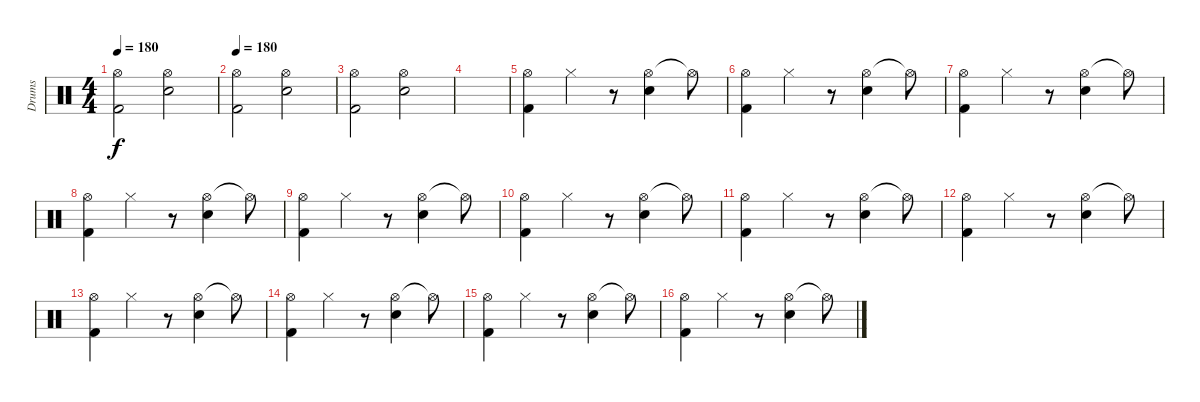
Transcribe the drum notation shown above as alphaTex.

\track ("Drums" "Drums") {instrument percussion}
\staff {score}
\articulation defaults
\ts (4 4)
\tempo 180
\clef neutral
\ks c
("Hi-Hat (open)" "Kick (hit) 2").2{dy f} ("Hi-Hat (open)" "Electric Snare (hit)").2 |
\tempo 180
("Hi-Hat (open)" "Kick (hit) 2").2 ("Hi-Hat (open)" "Electric Snare (hit)").2 |
("Hi-Hat (open)" "Kick (hit) 2").2 ("Hi-Hat (open)" "Electric Snare (hit)").2 |
|
("Hi-Hat (open)" "Kick (hit) 2").4 "Hi-Hat (closed)".4 r.8 ("Hi-Hat (open)" "Electric Snare (hit)").4 "Hi-Hat (open)"{t}.8 |
("Hi-Hat (open)" "Kick (hit) 2").4 "Hi-Hat (closed)".4 r.8 ("Hi-Hat (open)" "Electric Snare (hit)").4 "Hi-Hat (open)"{t}.8 |
("Hi-Hat (open)" "Kick (hit) 2").4 "Hi-Hat (closed)".4 r.8 ("Hi-Hat (open)" "Electric Snare (hit)").4 "Hi-Hat (open)"{t}.8 |
("Hi-Hat (open)" "Kick (hit) 2").4 "Hi-Hat (closed)".4 r.8 ("Hi-Hat (open)" "Electric Snare (hit)").4 "Hi-Hat (open)"{t}.8 |
("Hi-Hat (open)" "Kick (hit) 2").4 "Hi-Hat (closed)".4 r.8 ("Hi-Hat (open)" "Electric Snare (hit)").4 "Hi-Hat (open)"{t}.8 |
("Hi-Hat (open)" "Kick (hit) 2").4 "Hi-Hat (closed)".4 r.8 ("Hi-Hat (open)" "Electric Snare (hit)").4 "Hi-Hat (open)"{t}.8 |
("Hi-Hat (open)" "Kick (hit) 2").4 "Hi-Hat (closed)".4 r.8 ("Hi-Hat (open)" "Electric Snare (hit)").4 "Hi-Hat (open)"{t}.8 |
("Hi-Hat (open)" "Kick (hit) 2").4 "Hi-Hat (closed)".4 r.8 ("Hi-Hat (open)" "Electric Snare (hit)").4 "Hi-Hat (open)"{t}.8 |
("Hi-Hat (open)" "Kick (hit) 2").4 "Hi-Hat (closed)".4 r.8 ("Hi-Hat (open)" "Electric Snare (hit)").4 "Hi-Hat (open)"{t}.8 |
("Hi-Hat (open)" "Kick (hit) 2").4 "Hi-Hat (closed)".4 r.8 ("Hi-Hat (open)" "Electric Snare (hit)").4 "Hi-Hat (open)"{t}.8 |
("Hi-Hat (open)" "Kick (hit) 2").4 "Hi-Hat (closed)".4 r.8 ("Hi-Hat (open)" "Electric Snare (hit)").4 "Hi-Hat (open)"{t}.8 |
("Hi-Hat (open)" "Kick (hit) 2").4 "Hi-Hat (closed)".4 r.8 ("Hi-Hat (open)" "Electric Snare (hit)").4 "Hi-Hat (open)"{t}.8
